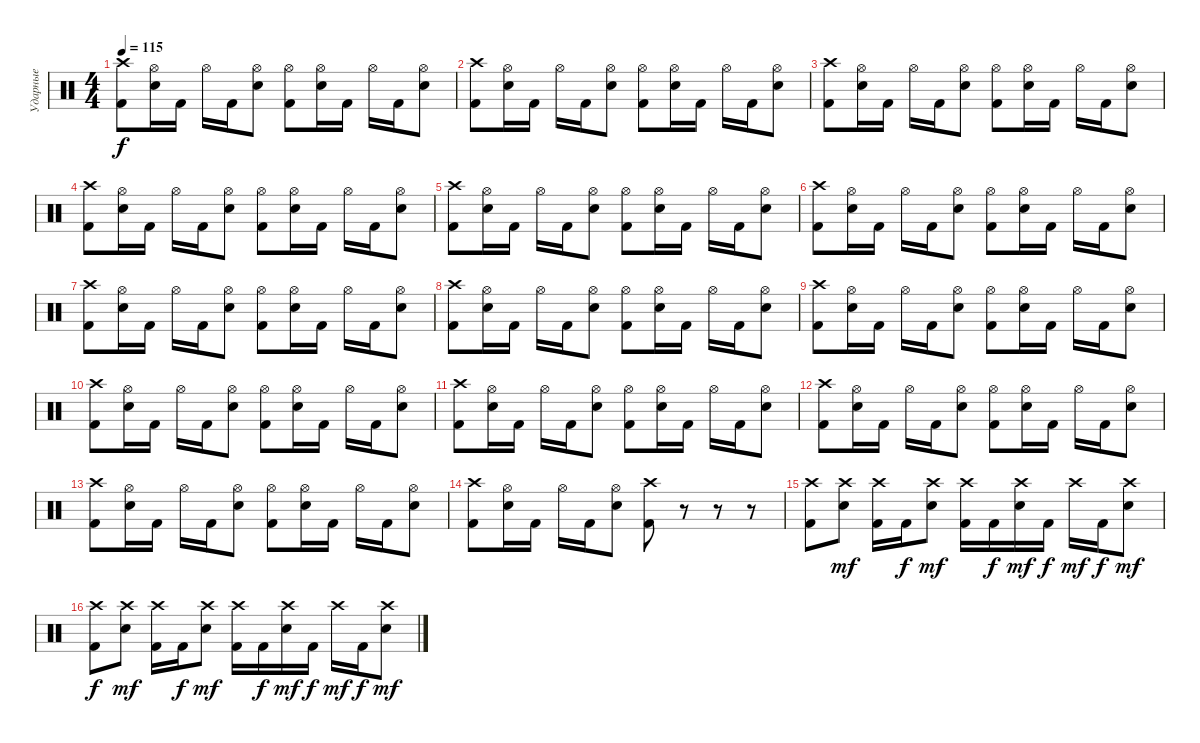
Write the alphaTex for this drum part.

\track ("Ударные" "Ударные") {instrument percussion}
\staff {score}
\articulation defaults
\ts (4 4)
\tempo 115
\clef neutral
\ks c
("Crash high (hit)" "Kick (hit) 2").8{dy f} ("Hi-Hat (open)" "Electric Snare (hit)").16 "Kick (hit) 2".16 "Hi-Hat (open)".16 "Kick (hit) 2".16 ("Hi-Hat (open)" "Electric Snare (hit)").8 ("Hi-Hat (open)" "Kick (hit) 2").8 ("Hi-Hat (open)" "Electric Snare (hit)").16 "Kick (hit) 2".16 "Hi-Hat (open)".16 "Kick (hit) 2".16 ("Hi-Hat (open)" "Electric Snare (hit)").8 |
("Crash high (hit)" "Kick (hit) 2").8 ("Hi-Hat (open)" "Electric Snare (hit)").16 "Kick (hit) 2".16 "Hi-Hat (open)".16 "Kick (hit) 2".16 ("Hi-Hat (open)" "Electric Snare (hit)").8 ("Hi-Hat (open)" "Kick (hit) 2").8 ("Hi-Hat (open)" "Electric Snare (hit)").16 "Kick (hit) 2".16 "Hi-Hat (open)".16 "Kick (hit) 2".16 ("Hi-Hat (open)" "Electric Snare (hit)").8 |
("Crash high (hit)" "Kick (hit) 2").8 ("Hi-Hat (open)" "Electric Snare (hit)").16 "Kick (hit) 2".16 "Hi-Hat (open)".16 "Kick (hit) 2".16 ("Hi-Hat (open)" "Electric Snare (hit)").8 ("Hi-Hat (open)" "Kick (hit) 2").8 ("Hi-Hat (open)" "Electric Snare (hit)").16 "Kick (hit) 2".16 "Hi-Hat (open)".16 "Kick (hit) 2".16 ("Hi-Hat (open)" "Electric Snare (hit)").8 |
("Crash high (hit)" "Kick (hit) 2").8 ("Hi-Hat (open)" "Electric Snare (hit)").16 "Kick (hit) 2".16 "Hi-Hat (open)".16 "Kick (hit) 2".16 ("Hi-Hat (open)" "Electric Snare (hit)").8 ("Hi-Hat (open)" "Kick (hit) 2").8 ("Hi-Hat (open)" "Electric Snare (hit)").16 "Kick (hit) 2".16 "Hi-Hat (open)".16 "Kick (hit) 2".16 ("Hi-Hat (open)" "Electric Snare (hit)").8 |
("Crash high (hit)" "Kick (hit) 2").8 ("Hi-Hat (open)" "Electric Snare (hit)").16 "Kick (hit) 2".16 "Hi-Hat (open)".16 "Kick (hit) 2".16 ("Hi-Hat (open)" "Electric Snare (hit)").8 ("Hi-Hat (open)" "Kick (hit) 2").8 ("Hi-Hat (open)" "Electric Snare (hit)").16 "Kick (hit) 2".16 "Hi-Hat (open)".16 "Kick (hit) 2".16 ("Hi-Hat (open)" "Electric Snare (hit)").8 |
("Crash high (hit)" "Kick (hit) 2").8 ("Hi-Hat (open)" "Electric Snare (hit)").16 "Kick (hit) 2".16 "Hi-Hat (open)".16 "Kick (hit) 2".16 ("Hi-Hat (open)" "Electric Snare (hit)").8 ("Hi-Hat (open)" "Kick (hit) 2").8 ("Hi-Hat (open)" "Electric Snare (hit)").16 "Kick (hit) 2".16 "Hi-Hat (open)".16 "Kick (hit) 2".16 ("Hi-Hat (open)" "Electric Snare (hit)").8 |
("Crash high (hit)" "Kick (hit) 2").8 ("Hi-Hat (open)" "Electric Snare (hit)").16 "Kick (hit) 2".16 "Hi-Hat (open)".16 "Kick (hit) 2".16 ("Hi-Hat (open)" "Electric Snare (hit)").8 ("Hi-Hat (open)" "Kick (hit) 2").8 ("Hi-Hat (open)" "Electric Snare (hit)").16 "Kick (hit) 2".16 "Hi-Hat (open)".16 "Kick (hit) 2".16 ("Hi-Hat (open)" "Electric Snare (hit)").8 |
("Crash high (hit)" "Kick (hit) 2").8 ("Hi-Hat (open)" "Electric Snare (hit)").16 "Kick (hit) 2".16 "Hi-Hat (open)".16 "Kick (hit) 2".16 ("Hi-Hat (open)" "Electric Snare (hit)").8 ("Hi-Hat (open)" "Kick (hit) 2").8 ("Hi-Hat (open)" "Electric Snare (hit)").16 "Kick (hit) 2".16 "Hi-Hat (open)".16 "Kick (hit) 2".16 ("Hi-Hat (open)" "Electric Snare (hit)").8 |
("Crash high (hit)" "Kick (hit) 2").8 ("Hi-Hat (open)" "Electric Snare (hit)").16 "Kick (hit) 2".16 "Hi-Hat (open)".16 "Kick (hit) 2".16 ("Hi-Hat (open)" "Electric Snare (hit)").8 ("Hi-Hat (open)" "Kick (hit) 2").8 ("Hi-Hat (open)" "Electric Snare (hit)").16 "Kick (hit) 2".16 "Hi-Hat (open)".16 "Kick (hit) 2".16 ("Hi-Hat (open)" "Electric Snare (hit)").8 |
("Crash high (hit)" "Kick (hit) 2").8 ("Hi-Hat (open)" "Electric Snare (hit)").16 "Kick (hit) 2".16 "Hi-Hat (open)".16 "Kick (hit) 2".16 ("Hi-Hat (open)" "Electric Snare (hit)").8 ("Hi-Hat (open)" "Kick (hit) 2").8 ("Hi-Hat (open)" "Electric Snare (hit)").16 "Kick (hit) 2".16 "Hi-Hat (open)".16 "Kick (hit) 2".16 ("Hi-Hat (open)" "Electric Snare (hit)").8 |
("Crash high (hit)" "Kick (hit) 2").8 ("Hi-Hat (open)" "Electric Snare (hit)").16 "Kick (hit) 2".16 "Hi-Hat (open)".16 "Kick (hit) 2".16 ("Hi-Hat (open)" "Electric Snare (hit)").8 ("Hi-Hat (open)" "Kick (hit) 2").8 ("Hi-Hat (open)" "Electric Snare (hit)").16 "Kick (hit) 2".16 "Hi-Hat (open)".16 "Kick (hit) 2".16 ("Hi-Hat (open)" "Electric Snare (hit)").8 |
("Crash high (hit)" "Kick (hit) 2").8 ("Hi-Hat (open)" "Electric Snare (hit)").16 "Kick (hit) 2".16 "Hi-Hat (open)".16 "Kick (hit) 2".16 ("Hi-Hat (open)" "Electric Snare (hit)").8 ("Hi-Hat (open)" "Kick (hit) 2").8 ("Hi-Hat (open)" "Electric Snare (hit)").16 "Kick (hit) 2".16 "Hi-Hat (open)".16 "Kick (hit) 2".16 ("Hi-Hat (open)" "Electric Snare (hit)").8 |
("Crash high (hit)" "Kick (hit) 2").8 ("Hi-Hat (open)" "Electric Snare (hit)").16 "Kick (hit) 2".16 "Hi-Hat (open)".16 "Kick (hit) 2".16 ("Hi-Hat (open)" "Electric Snare (hit)").8 ("Hi-Hat (open)" "Kick (hit) 2").8 ("Hi-Hat (open)" "Electric Snare (hit)").16 "Kick (hit) 2".16 "Hi-Hat (open)".16 "Kick (hit) 2".16 ("Hi-Hat (open)" "Electric Snare (hit)").8 |
("Crash high (hit)" "Kick (hit) 2").8 ("Hi-Hat (open)" "Electric Snare (hit)").16 "Kick (hit) 2".16 "Hi-Hat (open)".16 "Kick (hit) 2".16 ("Hi-Hat (open)" "Electric Snare (hit)").8 ("Crash high (hit)" "Kick (hit) 2").8 r.8 r.8 r.8 |
("Crash high (hit)" "Kick (hit) 2").8 ("Crash high (hit)" "Electric Snare (hit)").8{dy mf} ("Crash high (hit)" "Kick (hit) 2").16 "Kick (hit) 2".16{dy f} ("Crash high (hit)" "Electric Snare (hit)").8{dy mf} ("Crash high (hit)" "Kick (hit) 2").16 "Kick (hit) 2".16{dy f} ("Crash high (hit)" "Electric Snare (hit)").16{dy mf} "Kick (hit) 2".16{dy f} "Crash high (hit)".16{dy mf} "Kick (hit) 2".16{dy f} ("Crash high (hit)" "Electric Snare (hit)").8{dy mf} |
("Crash high (hit)" "Kick (hit) 2").8{dy f} ("Crash high (hit)" "Electric Snare (hit)").8{dy mf} ("Crash high (hit)" "Kick (hit) 2").16 "Kick (hit) 2".16{dy f} ("Crash high (hit)" "Electric Snare (hit)").8{dy mf} ("Crash high (hit)" "Kick (hit) 2").16 "Kick (hit) 2".16{dy f} ("Crash high (hit)" "Electric Snare (hit)").16{dy mf} "Kick (hit) 2".16{dy f} "Crash high (hit)".16{dy mf} "Kick (hit) 2".16{dy f} ("Crash high (hit)" "Electric Snare (hit)").8{dy mf}
